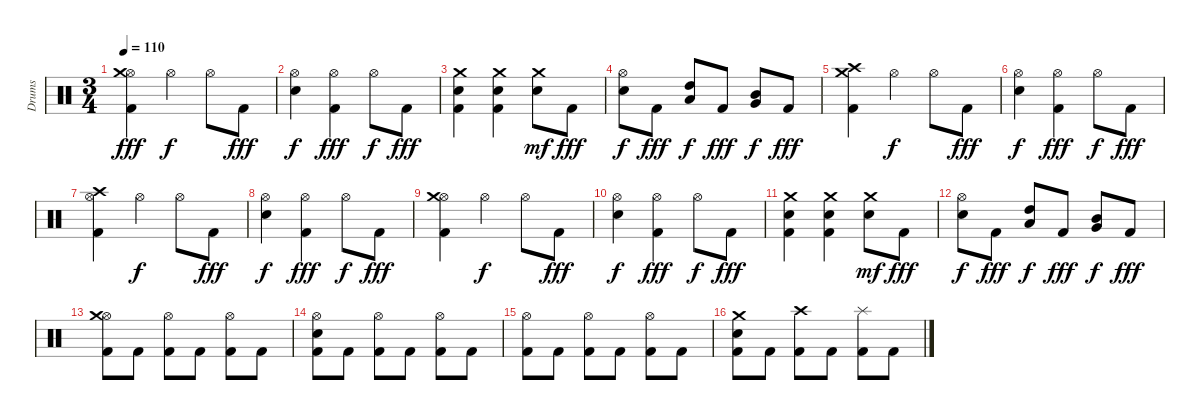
\track ("Drums" "Drums") {instrument percussion}
\staff {score}
\articulation defaults
\ts (3 4)
\tempo 110
\clef neutral
\ks c
("Hi-Hat (open)" "Crash medium (hit)" "Kick (hit) 2").4{dy fff} "Hi-Hat (open)".4{dy f} "Hi-Hat (open)".8 "Kick (hit) 2".8{dy fff} |
("Hi-Hat (open)" "Snare (hit) 2").4{dy f} ("Hi-Hat (open)" "Kick (hit) 2").4{dy fff} "Hi-Hat (open)".8{dy f} "Kick (hit) 2".8{dy fff} |
("Crash medium (hit)" "Snare (hit) 2" "Kick (hit) 2").4 ("Crash medium (hit)" "Snare (hit) 2" "Kick (hit) 2").4 ("Crash medium (hit)" "Snare (hit) 2").8{dy mf} "Kick (hit) 2".8{dy fff} |
("Hi-Hat (open)" "Snare (hit) 2").8{dy f} "Kick (hit) 2".8{dy fff} ("Low Tom (hit)" "High Tom (hit)").8{dy f} "Kick (hit) 2".8{dy fff} ("Very Low Tom (hit)" "Mid Tom (hit)").8{dy f} "Kick (hit) 2".8{dy fff} |
("Crash medium (hit)" "Crash high (hit)" "Kick (hit) 2").4 "Hi-Hat (open)".4{dy f} "Hi-Hat (open)".8 "Kick (hit) 2".8{dy fff} |
("Hi-Hat (open)" "Snare (hit) 2").4{dy f} ("Hi-Hat (open)" "Kick (hit) 2").4{dy fff} "Hi-Hat (open)".8{dy f} "Kick (hit) 2".8{dy fff} |
("Hi-Hat (open)" "Crash high (hit)" "Kick (hit) 2").4 "Hi-Hat (open)".4{dy f} "Hi-Hat (open)".8 "Kick (hit) 2".8{dy fff} |
("Hi-Hat (open)" "Snare (hit) 2").4{dy f} ("Hi-Hat (open)" "Kick (hit) 2").4{dy fff} "Hi-Hat (open)".8{dy f} "Kick (hit) 2".8{dy fff} |
("Hi-Hat (open)" "Crash medium (hit)" "Kick (hit) 2").4 "Hi-Hat (open)".4{dy f} "Hi-Hat (open)".8 "Kick (hit) 2".8{dy fff} |
("Hi-Hat (open)" "Snare (hit) 2").4{dy f} ("Hi-Hat (open)" "Kick (hit) 2").4{dy fff} "Hi-Hat (open)".8{dy f} "Kick (hit) 2".8{dy fff} |
("Crash medium (hit)" "Snare (hit) 2" "Kick (hit) 2").4 ("Crash medium (hit)" "Snare (hit) 2" "Kick (hit) 2").4 ("Crash medium (hit)" "Snare (hit) 2").8{dy mf} "Kick (hit) 2".8{dy fff} |
("Hi-Hat (open)" "Snare (hit) 2").8{dy f} "Kick (hit) 2".8{dy fff} ("Low Tom (hit)" "High Tom (hit)").8{dy f} "Kick (hit) 2".8{dy fff} ("Very Low Tom (hit)" "Mid Tom (hit)").8{dy f} "Kick (hit) 2".8{dy fff} |
("Hi-Hat (open)" "Crash medium (hit)" "Kick (hit) 2").8 "Kick (hit) 2".8 ("Hi-Hat (open)" "Kick (hit) 2").8 "Kick (hit) 2".8 ("Hi-Hat (open)" "Kick (hit) 2").8 "Kick (hit) 2".8 |
("Hi-Hat (open)" "Snare (hit) 2" "Kick (hit) 2").8 "Kick (hit) 2".8 ("Hi-Hat (open)" "Kick (hit) 2").8 "Kick (hit) 2".8 ("Hi-Hat (open)" "Kick (hit) 2").8 "Kick (hit) 2".8 |
("Hi-Hat (open)" "Kick (hit) 2").8 "Kick (hit) 2".8 ("Hi-Hat (open)" "Kick (hit) 2").8 "Kick (hit) 2".8 ("Hi-Hat (open)" "Kick (hit) 2").8 "Kick (hit) 2".8 |
("Crash medium (hit)" "Snare (hit) 2" "Kick (hit) 2").8 "Kick (hit) 2".8 ("Crash high (hit)" "Kick (hit) 2").8 "Kick (hit) 2".8 ("Splash (hit)" "Kick (hit) 2").8 "Kick (hit) 2".8
